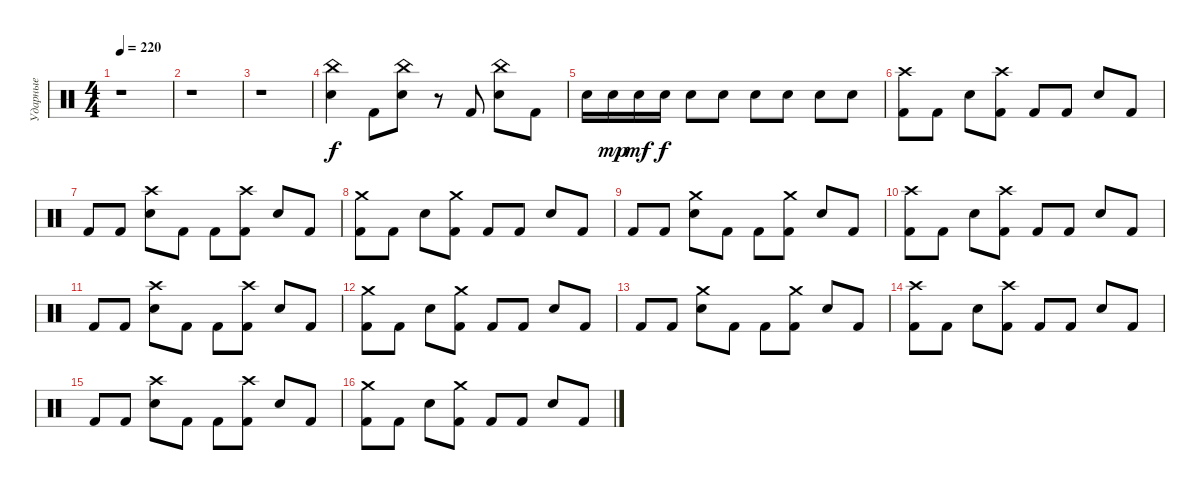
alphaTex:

\track ("Ударные" "Ударные") {instrument percussion}
\staff {score}
\articulation defaults
\ts (4 4)
\tempo 220
\clef neutral
\ks c
r.1{dy mf} |
r.1 |
r.1 |
("China (hit)" "Electric Snare (hit)").4{dy f} "Kick (hit) 2".8 ("China (hit)" "Electric Snare (hit)").8 r.8 "Kick (hit) 2".8 ("China (hit)" "Electric Snare (hit)").8 "Kick (hit) 2".8 |
"Electric Snare (hit)".16 "Electric Snare (hit)".16{dy mp} "Electric Snare (hit)".16{dy mf} "Electric Snare (hit)".16{dy f} "Electric Snare (hit)".8 "Electric Snare (hit)".8 "Electric Snare (hit)".8 "Electric Snare (hit)".8 "Electric Snare (hit)".8 "Electric Snare (hit)".8 |
("Crash high (hit)" "Kick (hit) 2").8 "Kick (hit) 2".8 "Electric Snare (hit)".8 ("Crash high (hit)" "Kick (hit) 2").8 "Kick (hit) 2".8 "Kick (hit) 2".8 "Electric Snare (hit)".8 "Kick (hit) 2".8 |
"Kick (hit) 2".8 "Kick (hit) 2".8 ("Crash high (hit)" "Electric Snare (hit)").8 "Kick (hit) 2".8 "Kick (hit) 2".8 ("Crash high (hit)" "Kick (hit) 2").8 "Electric Snare (hit)".8 "Kick (hit) 2".8 |
("Crash medium (hit)" "Kick (hit) 2").8 "Kick (hit) 2".8 "Electric Snare (hit)".8 ("Crash medium (hit)" "Kick (hit) 2").8 "Kick (hit) 2".8 "Kick (hit) 2".8 "Electric Snare (hit)".8 "Kick (hit) 2".8 |
"Kick (hit) 2".8 "Kick (hit) 2".8 ("Crash medium (hit)" "Electric Snare (hit)").8 "Kick (hit) 2".8 "Kick (hit) 2".8 ("Crash medium (hit)" "Kick (hit) 2").8 "Electric Snare (hit)".8 "Kick (hit) 2".8 |
("Crash high (hit)" "Kick (hit) 2").8 "Kick (hit) 2".8 "Electric Snare (hit)".8 ("Crash high (hit)" "Kick (hit) 2").8 "Kick (hit) 2".8 "Kick (hit) 2".8 "Electric Snare (hit)".8 "Kick (hit) 2".8 |
"Kick (hit) 2".8 "Kick (hit) 2".8 ("Crash high (hit)" "Electric Snare (hit)").8 "Kick (hit) 2".8 "Kick (hit) 2".8 ("Crash high (hit)" "Kick (hit) 2").8 "Electric Snare (hit)".8 "Kick (hit) 2".8 |
("Crash medium (hit)" "Kick (hit) 2").8 "Kick (hit) 2".8 "Electric Snare (hit)".8 ("Crash medium (hit)" "Kick (hit) 2").8 "Kick (hit) 2".8 "Kick (hit) 2".8 "Electric Snare (hit)".8 "Kick (hit) 2".8 |
"Kick (hit) 2".8 "Kick (hit) 2".8 ("Crash medium (hit)" "Electric Snare (hit)").8 "Kick (hit) 2".8 "Kick (hit) 2".8 ("Crash medium (hit)" "Kick (hit) 2").8 "Electric Snare (hit)".8 "Kick (hit) 2".8 |
("Crash high (hit)" "Kick (hit) 2").8 "Kick (hit) 2".8 "Electric Snare (hit)".8 ("Crash high (hit)" "Kick (hit) 2").8 "Kick (hit) 2".8 "Kick (hit) 2".8 "Electric Snare (hit)".8 "Kick (hit) 2".8 |
"Kick (hit) 2".8 "Kick (hit) 2".8 ("Crash high (hit)" "Electric Snare (hit)").8 "Kick (hit) 2".8 "Kick (hit) 2".8 ("Crash high (hit)" "Kick (hit) 2").8 "Electric Snare (hit)".8 "Kick (hit) 2".8 |
("Crash medium (hit)" "Kick (hit) 2").8 "Kick (hit) 2".8 "Electric Snare (hit)".8 ("Crash medium (hit)" "Kick (hit) 2").8 "Kick (hit) 2".8 "Kick (hit) 2".8 "Electric Snare (hit)".8 "Kick (hit) 2".8
